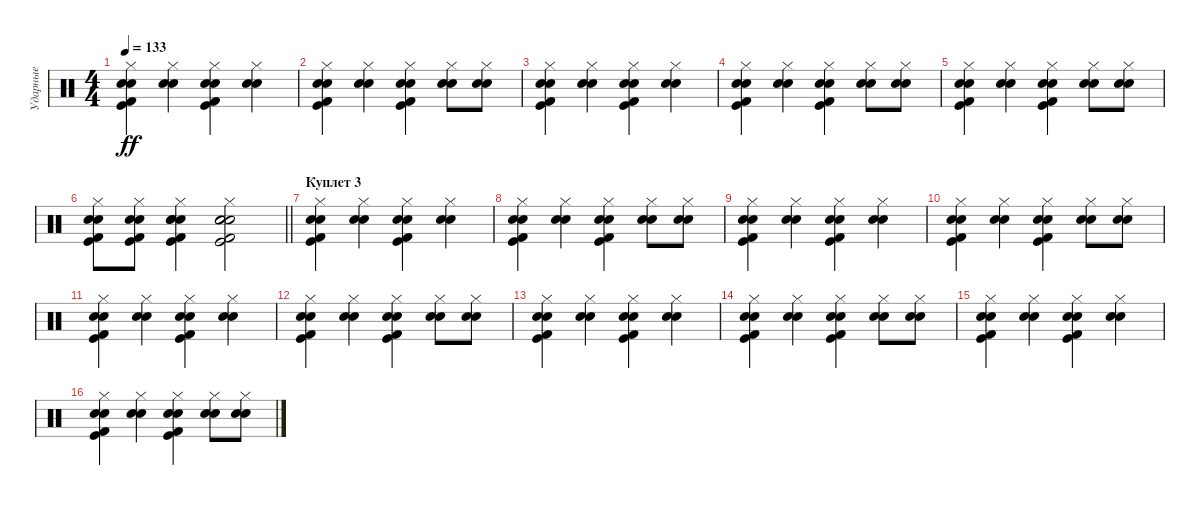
\track ("Ударные" "Ударные") {instrument percussion}
\staff {score}
\articulation defaults
\ts (4 4)
\tempo 133
\clef neutral
\ks c
("Snare (hit) 2" "Kick (hit)" "Kick (hit) 2" "Snare (hit) 2" "Hi-Hat (closed)").4{dy ff} ("Electric Snare (hit)" "Electric Snare (hit)" "Hi-Hat (closed)").4 ("Snare (hit) 2" "Kick (hit)" "Kick (hit) 2" "Snare (hit) 2" "Hi-Hat (closed)").4 ("Electric Snare (hit)" "Electric Snare (hit)" "Hi-Hat (closed)").4 |
("Snare (hit) 2" "Kick (hit)" "Kick (hit) 2" "Snare (hit) 2" "Hi-Hat (closed)").4 ("Electric Snare (hit)" "Electric Snare (hit)" "Hi-Hat (closed)").4 ("Snare (hit) 2" "Kick (hit)" "Kick (hit) 2" "Snare (hit) 2" "Hi-Hat (closed)").4 ("Electric Snare (hit)" "Electric Snare (hit)" "Hi-Hat (closed)").8 ("Electric Snare (hit)" "Electric Snare (hit)" "Hi-Hat (closed)").8 |
("Snare (hit) 2" "Kick (hit)" "Kick (hit) 2" "Snare (hit) 2" "Hi-Hat (closed)").4 ("Electric Snare (hit)" "Electric Snare (hit)" "Hi-Hat (closed)").4 ("Snare (hit) 2" "Kick (hit)" "Kick (hit) 2" "Snare (hit) 2" "Hi-Hat (closed)").4 ("Electric Snare (hit)" "Electric Snare (hit)" "Hi-Hat (closed)").4 |
("Snare (hit) 2" "Kick (hit)" "Kick (hit) 2" "Snare (hit) 2" "Hi-Hat (closed)").4 ("Electric Snare (hit)" "Electric Snare (hit)" "Hi-Hat (closed)").4 ("Snare (hit) 2" "Kick (hit)" "Kick (hit) 2" "Snare (hit) 2" "Hi-Hat (closed)").4 ("Electric Snare (hit)" "Electric Snare (hit)" "Hi-Hat (closed)").8 ("Electric Snare (hit)" "Electric Snare (hit)" "Hi-Hat (closed)").8 |
("Snare (hit) 2" "Kick (hit)" "Kick (hit) 2" "Snare (hit) 2" "Hi-Hat (closed)").4 ("Electric Snare (hit)" "Electric Snare (hit)" "Hi-Hat (closed)").4 ("Snare (hit) 2" "Kick (hit)" "Kick (hit) 2" "Snare (hit) 2" "Hi-Hat (closed)").4 ("Electric Snare (hit)" "Electric Snare (hit)" "Hi-Hat (closed)").8 ("Electric Snare (hit)" "Electric Snare (hit)" "Hi-Hat (closed)").8 |
\barLineRight lightlight
("Snare (hit) 2" "Kick (hit)" "Kick (hit) 2" "Snare (hit) 2" "Hi-Hat (closed)").8 ("Snare (hit) 2" "Kick (hit)" "Kick (hit) 2" "Snare (hit) 2" "Hi-Hat (closed)").8 ("Snare (hit) 2" "Kick (hit)" "Kick (hit) 2" "Snare (hit) 2" "Electric Snare (hit)" "Hi-Hat (closed)").4 ("Snare (hit) 2" "Kick (hit)" "Kick (hit) 2" "Snare (hit) 2" "Electric Snare (hit)" "Hi-Hat (closed)").2 |
\section ("" "Куплет 3")
("Snare (hit) 2" "Kick (hit)" "Kick (hit) 2" "Snare (hit) 2" "Hi-Hat (closed)").4 ("Electric Snare (hit)" "Electric Snare (hit)" "Hi-Hat (closed)").4 ("Snare (hit) 2" "Kick (hit)" "Kick (hit) 2" "Snare (hit) 2" "Hi-Hat (closed)").4 ("Electric Snare (hit)" "Electric Snare (hit)" "Hi-Hat (closed)").4 |
("Snare (hit) 2" "Kick (hit)" "Kick (hit) 2" "Snare (hit) 2" "Hi-Hat (closed)").4 ("Electric Snare (hit)" "Electric Snare (hit)" "Hi-Hat (closed)").4 ("Snare (hit) 2" "Kick (hit)" "Kick (hit) 2" "Snare (hit) 2" "Hi-Hat (closed)").4 ("Electric Snare (hit)" "Electric Snare (hit)" "Hi-Hat (closed)").8 ("Electric Snare (hit)" "Electric Snare (hit)" "Hi-Hat (closed)").8 |
("Snare (hit) 2" "Kick (hit)" "Kick (hit) 2" "Snare (hit) 2" "Hi-Hat (closed)").4 ("Electric Snare (hit)" "Electric Snare (hit)" "Hi-Hat (closed)").4 ("Snare (hit) 2" "Kick (hit)" "Kick (hit) 2" "Snare (hit) 2" "Hi-Hat (closed)").4 ("Electric Snare (hit)" "Electric Snare (hit)" "Hi-Hat (closed)").4 |
("Snare (hit) 2" "Kick (hit)" "Kick (hit) 2" "Snare (hit) 2" "Hi-Hat (closed)").4 ("Electric Snare (hit)" "Electric Snare (hit)" "Hi-Hat (closed)").4 ("Snare (hit) 2" "Kick (hit)" "Kick (hit) 2" "Snare (hit) 2" "Hi-Hat (closed)").4 ("Electric Snare (hit)" "Electric Snare (hit)" "Hi-Hat (closed)").8 ("Electric Snare (hit)" "Electric Snare (hit)" "Hi-Hat (closed)").8 |
("Snare (hit) 2" "Kick (hit)" "Kick (hit) 2" "Snare (hit) 2" "Hi-Hat (closed)").4 ("Electric Snare (hit)" "Electric Snare (hit)" "Hi-Hat (closed)").4 ("Snare (hit) 2" "Kick (hit)" "Kick (hit) 2" "Snare (hit) 2" "Hi-Hat (closed)").4 ("Electric Snare (hit)" "Electric Snare (hit)" "Hi-Hat (closed)").4 |
("Snare (hit) 2" "Kick (hit)" "Kick (hit) 2" "Snare (hit) 2" "Hi-Hat (closed)").4 ("Electric Snare (hit)" "Electric Snare (hit)" "Hi-Hat (closed)").4 ("Snare (hit) 2" "Kick (hit)" "Kick (hit) 2" "Snare (hit) 2" "Hi-Hat (closed)").4 ("Electric Snare (hit)" "Electric Snare (hit)" "Hi-Hat (closed)").8 ("Electric Snare (hit)" "Electric Snare (hit)" "Hi-Hat (closed)").8 |
("Snare (hit) 2" "Kick (hit)" "Kick (hit) 2" "Snare (hit) 2" "Hi-Hat (closed)").4 ("Electric Snare (hit)" "Electric Snare (hit)" "Hi-Hat (closed)").4 ("Snare (hit) 2" "Kick (hit)" "Kick (hit) 2" "Snare (hit) 2" "Hi-Hat (closed)").4 ("Electric Snare (hit)" "Electric Snare (hit)" "Hi-Hat (closed)").4 |
("Snare (hit) 2" "Kick (hit)" "Kick (hit) 2" "Snare (hit) 2" "Hi-Hat (closed)").4 ("Electric Snare (hit)" "Electric Snare (hit)" "Hi-Hat (closed)").4 ("Snare (hit) 2" "Kick (hit)" "Kick (hit) 2" "Snare (hit) 2" "Hi-Hat (closed)").4 ("Electric Snare (hit)" "Electric Snare (hit)" "Hi-Hat (closed)").8 ("Electric Snare (hit)" "Electric Snare (hit)" "Hi-Hat (closed)").8 |
("Snare (hit) 2" "Kick (hit)" "Kick (hit) 2" "Snare (hit) 2" "Hi-Hat (closed)").4 ("Electric Snare (hit)" "Electric Snare (hit)" "Hi-Hat (closed)").4 ("Snare (hit) 2" "Kick (hit)" "Kick (hit) 2" "Snare (hit) 2" "Hi-Hat (closed)").4 ("Electric Snare (hit)" "Electric Snare (hit)" "Hi-Hat (closed)").4 |
("Snare (hit) 2" "Kick (hit)" "Kick (hit) 2" "Snare (hit) 2" "Hi-Hat (closed)").4 ("Electric Snare (hit)" "Electric Snare (hit)" "Hi-Hat (closed)").4 ("Snare (hit) 2" "Kick (hit)" "Kick (hit) 2" "Snare (hit) 2" "Hi-Hat (closed)").4 ("Electric Snare (hit)" "Electric Snare (hit)" "Hi-Hat (closed)").8 ("Electric Snare (hit)" "Electric Snare (hit)" "Hi-Hat (closed)").8
